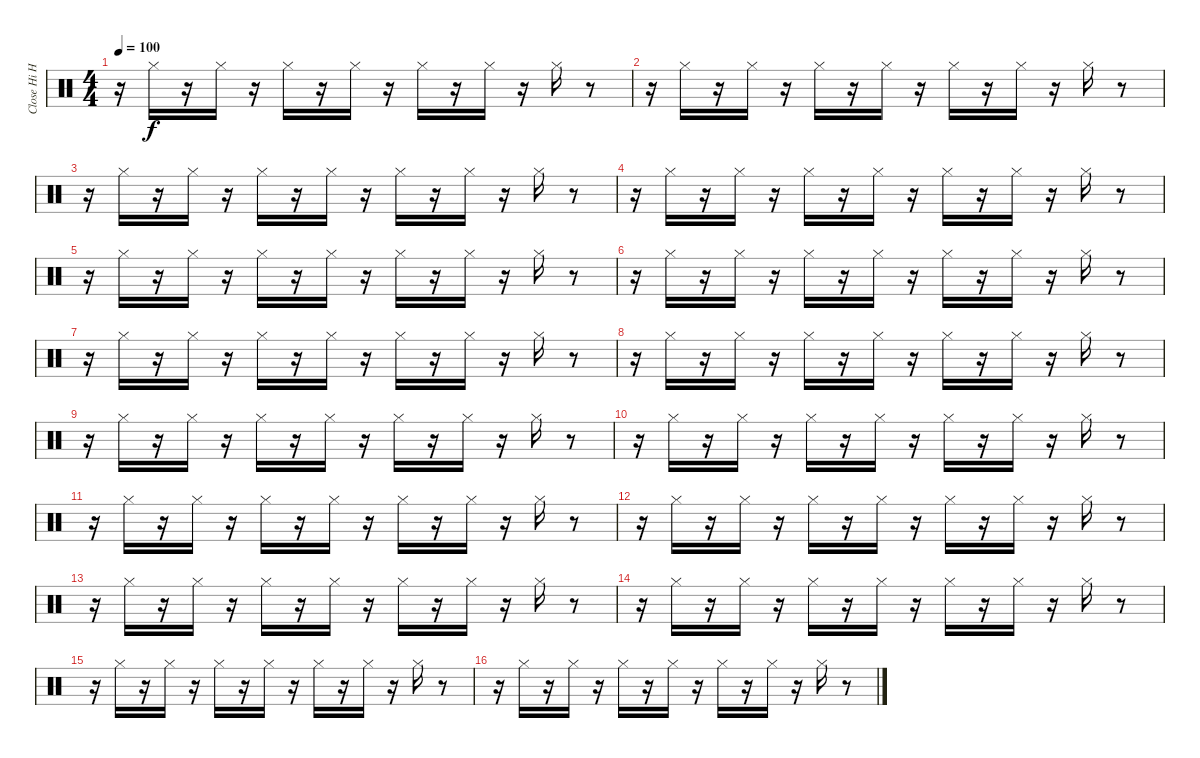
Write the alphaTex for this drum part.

\track ("Close Hi Hat" "Close Hi H") {instrument percussion}
\staff {score}
\articulation defaults
\ts (4 4)
\tempo 100
\clef neutral
\ks c
r.16{dy f} "Hi-Hat (closed)".16 r.16 "Hi-Hat (closed)".16 r.16 "Hi-Hat (closed)".16 r.16 "Hi-Hat (closed)".16 r.16 "Hi-Hat (closed)".16 r.16 "Hi-Hat (closed)".16 r.16 "Hi-Hat (closed)".16 r.8 |
r.16 "Hi-Hat (closed)".16 r.16 "Hi-Hat (closed)".16 r.16 "Hi-Hat (closed)".16 r.16 "Hi-Hat (closed)".16 r.16 "Hi-Hat (closed)".16 r.16 "Hi-Hat (closed)".16 r.16 "Hi-Hat (closed)".16 r.8 |
r.16 "Hi-Hat (closed)".16 r.16 "Hi-Hat (closed)".16 r.16 "Hi-Hat (closed)".16 r.16 "Hi-Hat (closed)".16 r.16 "Hi-Hat (closed)".16 r.16 "Hi-Hat (closed)".16 r.16 "Hi-Hat (closed)".16 r.8 |
r.16 "Hi-Hat (closed)".16 r.16 "Hi-Hat (closed)".16 r.16 "Hi-Hat (closed)".16 r.16 "Hi-Hat (closed)".16 r.16 "Hi-Hat (closed)".16 r.16 "Hi-Hat (closed)".16 r.16 "Hi-Hat (closed)".16 r.8 |
r.16 "Hi-Hat (closed)".16 r.16 "Hi-Hat (closed)".16 r.16 "Hi-Hat (closed)".16 r.16 "Hi-Hat (closed)".16 r.16 "Hi-Hat (closed)".16 r.16 "Hi-Hat (closed)".16 r.16 "Hi-Hat (closed)".16 r.8 |
r.16 "Hi-Hat (closed)".16 r.16 "Hi-Hat (closed)".16 r.16 "Hi-Hat (closed)".16 r.16 "Hi-Hat (closed)".16 r.16 "Hi-Hat (closed)".16 r.16 "Hi-Hat (closed)".16 r.16 "Hi-Hat (closed)".16 r.8 |
r.16 "Hi-Hat (closed)".16 r.16 "Hi-Hat (closed)".16 r.16 "Hi-Hat (closed)".16 r.16 "Hi-Hat (closed)".16 r.16 "Hi-Hat (closed)".16 r.16 "Hi-Hat (closed)".16 r.16 "Hi-Hat (closed)".16 r.8 |
r.16 "Hi-Hat (closed)".16 r.16 "Hi-Hat (closed)".16 r.16 "Hi-Hat (closed)".16 r.16 "Hi-Hat (closed)".16 r.16 "Hi-Hat (closed)".16 r.16 "Hi-Hat (closed)".16 r.16 "Hi-Hat (closed)".16 r.8 |
r.16 "Hi-Hat (closed)".16 r.16 "Hi-Hat (closed)".16 r.16 "Hi-Hat (closed)".16 r.16 "Hi-Hat (closed)".16 r.16 "Hi-Hat (closed)".16 r.16 "Hi-Hat (closed)".16 r.16 "Hi-Hat (closed)".16 r.8 |
r.16 "Hi-Hat (closed)".16 r.16 "Hi-Hat (closed)".16 r.16 "Hi-Hat (closed)".16 r.16 "Hi-Hat (closed)".16 r.16 "Hi-Hat (closed)".16 r.16 "Hi-Hat (closed)".16 r.16 "Hi-Hat (closed)".16 r.8 |
r.16 "Hi-Hat (closed)".16 r.16 "Hi-Hat (closed)".16 r.16 "Hi-Hat (closed)".16 r.16 "Hi-Hat (closed)".16 r.16 "Hi-Hat (closed)".16 r.16 "Hi-Hat (closed)".16 r.16 "Hi-Hat (closed)".16 r.8 |
r.16 "Hi-Hat (closed)".16 r.16 "Hi-Hat (closed)".16 r.16 "Hi-Hat (closed)".16 r.16 "Hi-Hat (closed)".16 r.16 "Hi-Hat (closed)".16 r.16 "Hi-Hat (closed)".16 r.16 "Hi-Hat (closed)".16 r.8 |
r.16 "Hi-Hat (closed)".16 r.16 "Hi-Hat (closed)".16 r.16 "Hi-Hat (closed)".16 r.16 "Hi-Hat (closed)".16 r.16 "Hi-Hat (closed)".16 r.16 "Hi-Hat (closed)".16 r.16 "Hi-Hat (closed)".16 r.8 |
r.16 "Hi-Hat (closed)".16 r.16 "Hi-Hat (closed)".16 r.16 "Hi-Hat (closed)".16 r.16 "Hi-Hat (closed)".16 r.16 "Hi-Hat (closed)".16 r.16 "Hi-Hat (closed)".16 r.16 "Hi-Hat (closed)".16 r.8 |
r.16 "Hi-Hat (closed)".16 r.16 "Hi-Hat (closed)".16 r.16 "Hi-Hat (closed)".16 r.16 "Hi-Hat (closed)".16 r.16 "Hi-Hat (closed)".16 r.16 "Hi-Hat (closed)".16 r.16 "Hi-Hat (closed)".16 r.8 |
r.16 "Hi-Hat (closed)".16 r.16 "Hi-Hat (closed)".16 r.16 "Hi-Hat (closed)".16 r.16 "Hi-Hat (closed)".16 r.16 "Hi-Hat (closed)".16 r.16 "Hi-Hat (closed)".16 r.16 "Hi-Hat (closed)".16 r.8
